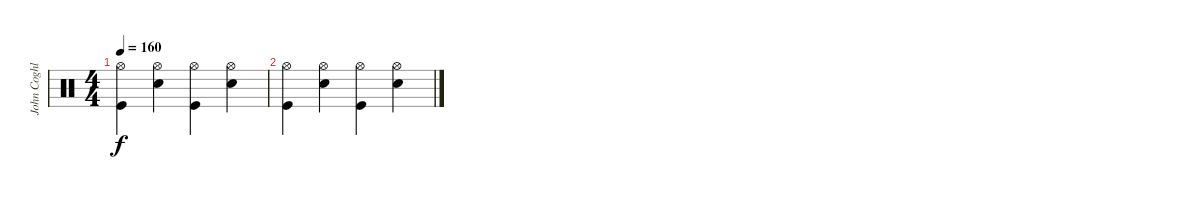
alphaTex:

\track ("John Coghlan" "John Coghl") {instrument percussion}
\staff {score}
\articulation defaults
\ts (4 4)
\tempo 160
\clef neutral
\ks c
("Hi-Hat (open)" "Kick (hit)").4{dy f} ("Electric Snare (hit)" "Hi-Hat (open)").4 ("Hi-Hat (open)" "Kick (hit)").4 ("Electric Snare (hit)" "Hi-Hat (open)").4 |
("Hi-Hat (open)" "Kick (hit)").4 ("Electric Snare (hit)" "Hi-Hat (open)").4 ("Hi-Hat (open)" "Kick (hit)").4 ("Electric Snare (hit)" "Hi-Hat (open)").4
